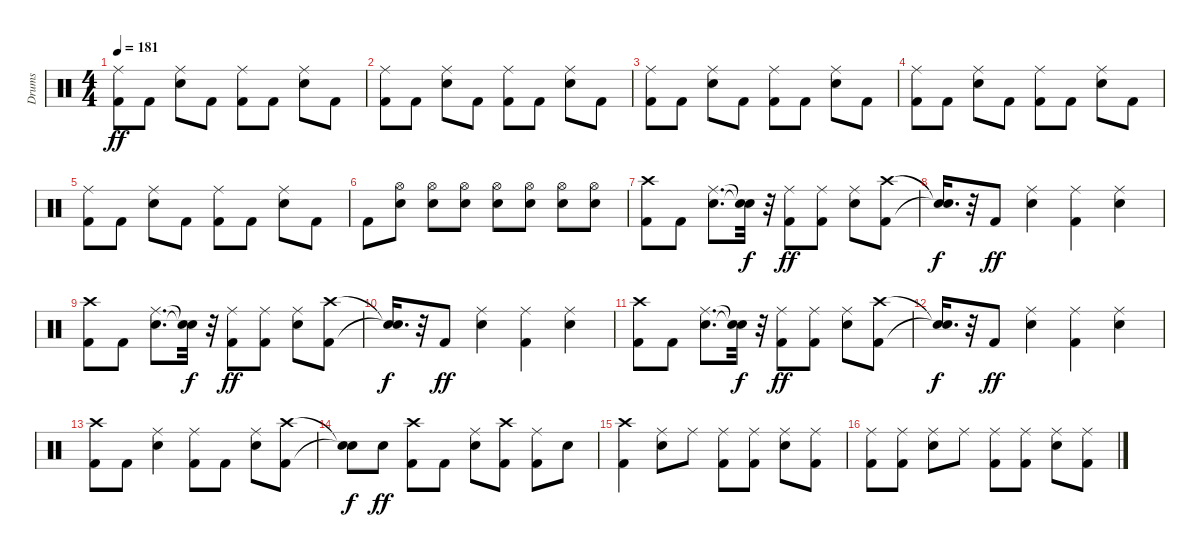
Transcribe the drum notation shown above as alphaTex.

\track ("Drums" "Drums") {instrument percussion}
\staff {score}
\articulation defaults
\ts (4 4)
\tempo 181
\clef neutral
\ks c
("Kick (hit) 2" "Ride (middle)").8{dy ff} "Kick (hit) 2".8 ("Snare (hit) 2" "Ride (middle)").8 "Kick (hit) 2".8 ("Kick (hit) 2" "Ride (middle)").8 "Kick (hit) 2".8 ("Snare (hit) 2" "Ride (middle)").8 "Kick (hit) 2".8 |
("Kick (hit) 2" "Ride (middle)").8 "Kick (hit) 2".8 ("Snare (hit) 2" "Ride (middle)").8 "Kick (hit) 2".8 ("Kick (hit) 2" "Ride (middle)").8 "Kick (hit) 2".8 ("Snare (hit) 2" "Ride (middle)").8 "Kick (hit) 2".8 |
("Kick (hit) 2" "Ride (middle)").8 "Kick (hit) 2".8 ("Snare (hit) 2" "Ride (middle)").8 "Kick (hit) 2".8 ("Kick (hit) 2" "Ride (middle)").8 "Kick (hit) 2".8 ("Snare (hit) 2" "Ride (middle)").8 "Kick (hit) 2".8 |
("Kick (hit) 2" "Ride (middle)").8 "Kick (hit) 2".8 ("Snare (hit) 2" "Ride (middle)").8 "Kick (hit) 2".8 ("Kick (hit) 2" "Ride (middle)").8 "Kick (hit) 2".8 ("Snare (hit) 2" "Ride (middle)").8 "Kick (hit) 2".8 |
("Kick (hit) 2" "Ride (middle)").8 "Kick (hit) 2".8 ("Snare (hit) 2" "Ride (middle)").8 "Kick (hit) 2".8 ("Kick (hit) 2" "Ride (middle)").8 "Kick (hit) 2".8 ("Snare (hit) 2" "Ride (middle)").8 "Kick (hit) 2".8 |
"Kick (hit) 2".8 ("Snare (hit) 2" "Hi-Hat (open)").8 ("Snare (hit) 2" "Hi-Hat (open)").8 ("Snare (hit) 2" "Hi-Hat (open)").8 ("Snare (hit) 2" "Hi-Hat (open)").8 ("Snare (hit) 2" "Hi-Hat (open)").8 ("Snare (hit) 2" "Hi-Hat (open)").8 ("Snare (hit) 2" "Hi-Hat (open)").8 |
("Kick (hit) 2" "Crash high (hit)").8 "Kick (hit) 2".8 ("Snare (hit) 2" "Ride (middle)").8{d} ("Snare (hit)"{t} "Snare (hit)"{t}).32{dy f} r.32 ("Kick (hit) 2" "Ride (middle)").8{dy ff} ("Kick (hit) 2" "Ride (middle)").8 ("Snare (hit) 2" "Ride (middle)").8 ("Kick (hit) 2" "Crash high (hit)").8 |
("Snare (hit)"{t} "Snare (hit)"{t}).16{d dy f} r.32 "Kick (hit) 2".8{dy ff} ("Snare (hit) 2" "Ride (middle)").4 ("Kick (hit) 2" "Ride (middle)").4 ("Snare (hit) 2" "Ride (middle)").4 |
("Kick (hit) 2" "Crash high (hit)").8 "Kick (hit) 2".8 ("Snare (hit) 2" "Ride (middle)").8{d} ("Snare (hit)"{t} "Snare (hit)"{t}).32{dy f} r.32 ("Kick (hit) 2" "Ride (middle)").8{dy ff} ("Kick (hit) 2" "Ride (middle)").8 ("Snare (hit) 2" "Ride (middle)").8 ("Kick (hit) 2" "Crash high (hit)").8 |
("Snare (hit)"{t} "Snare (hit)"{t}).16{d dy f} r.32 "Kick (hit) 2".8{dy ff} ("Snare (hit) 2" "Ride (middle)").4 ("Kick (hit) 2" "Ride (middle)").4 ("Snare (hit) 2" "Ride (middle)").4 |
("Kick (hit) 2" "Crash high (hit)").8 "Kick (hit) 2".8 ("Snare (hit) 2" "Ride (middle)").8{d} ("Snare (hit)"{t} "Snare (hit)"{t}).32{dy f} r.32 ("Kick (hit) 2" "Ride (middle)").8{dy ff} ("Kick (hit) 2" "Ride (middle)").8 ("Snare (hit) 2" "Ride (middle)").8 ("Kick (hit) 2" "Crash high (hit)").8 |
("Snare (hit)"{t} "Snare (hit)"{t}).16{d dy f} r.32 "Kick (hit) 2".8{dy ff} ("Snare (hit) 2" "Ride (middle)").4 ("Kick (hit) 2" "Ride (middle)").4 ("Snare (hit) 2" "Ride (middle)").4 |
("Kick (hit) 2" "Crash high (hit)").8 "Kick (hit) 2".8 ("Snare (hit) 2" "Ride (middle)").4 ("Kick (hit) 2" "Ride (middle)").8 "Kick (hit) 2".8 ("Snare (hit) 2" "Ride (middle)").8 ("Kick (hit) 2" "Crash high (hit)").8 |
("Snare (hit)"{t} "Snare (hit)"{t}).8{dy f} "Snare (hit) 2".8{dy ff} ("Kick (hit) 2" "Crash high (hit)").8 "Kick (hit) 2".8 ("Snare (hit) 2" "Ride (middle)").8 ("Kick (hit) 2" "Crash high (hit)").8 ("Kick (hit) 2" "Ride (middle)").8 "Snare (hit) 2".8 |
("Kick (hit) 2" "Crash high (hit)").4 ("Snare (hit) 2" "Ride (middle)").8 "Ride (middle)".8 ("Kick (hit) 2" "Ride (middle)").8 ("Kick (hit) 2" "Ride (middle)").8 ("Snare (hit) 2" "Ride (middle)").8 ("Kick (hit) 2" "Ride (middle)").8 |
("Kick (hit) 2" "Ride (middle)").8 ("Kick (hit) 2" "Ride (middle)").8 ("Snare (hit) 2" "Ride (middle)").8 "Ride (middle)".8 ("Kick (hit) 2" "Ride (middle)").8 ("Kick (hit) 2" "Ride (middle)").8 ("Snare (hit) 2" "Ride (middle)").8 ("Kick (hit) 2" "Ride (middle)").8
